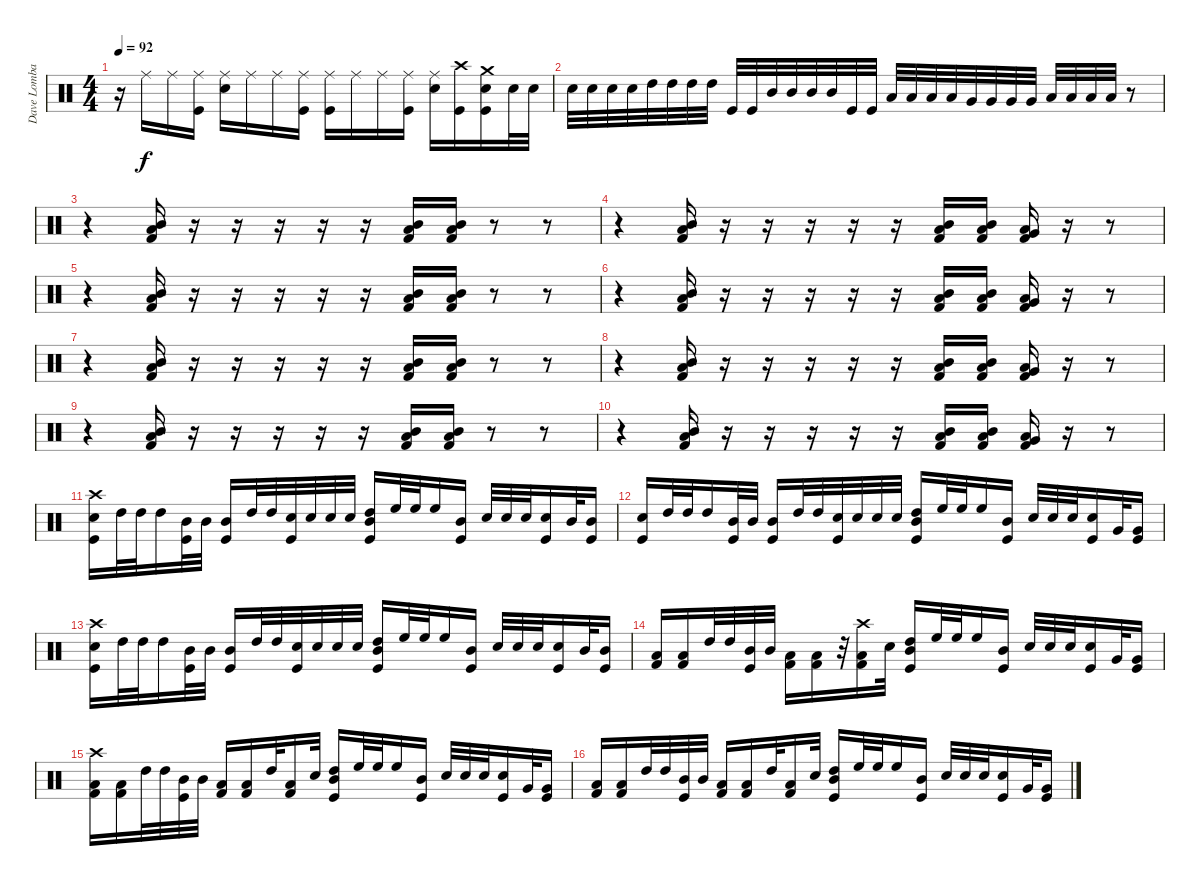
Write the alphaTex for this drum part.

\track ("Dave Lombardo" "Dave Lomba") {instrument percussion}
\staff {score}
\articulation defaults
\ts (4 4)
\tempo 92
\clef neutral
\ks c
r.16{dy f} "Ride (middle)".16 "Ride (middle)".16 ("Ride (middle)" "Kick (hit)").16 ("Ride (middle)" "Snare (hit) 2").16 "Ride (middle)".16 "Ride (middle)".16 ("Ride (middle)" "Kick (hit)").16 ("Ride (middle)" "Kick (hit)").16 "Ride (middle)".16 "Ride (middle)".16 ("Ride (middle)" "Kick (hit)").16 ("Ride (middle)" "Snare (hit) 2").16 ("Crash high (hit)" "Kick (hit)").16 ("Kick (hit)" "Snare (hit) 2" "Crash medium (hit)").16 "Snare (hit) 2".32 "Snare (hit) 2".32 |
"Snare (hit) 2".32 "Snare (hit) 2".32 "Snare (hit) 2".32 "Snare (hit) 2".32 "High Tom (hit)".32 "High Tom (hit)".32 "High Tom (hit)".32 "High Tom (hit)".32 "Kick (hit)".32 "Kick (hit)".32 "Mid Tom (hit)".32 "Mid Tom (hit)".32 "Mid Tom (hit)".32 "Mid Tom (hit)".32 "Kick (hit)".32 "Kick (hit)".32 "Low Tom (hit)".32 "Low Tom (hit)".32 "Low Tom (hit)".32 "Low Tom (hit)".32 "Very Low Tom (hit)".32 "Very Low Tom (hit)".32 "Very Low Tom (hit)".32 "Very Low Tom (hit)".32 "Low Floor Tom (hit)".32 "Low Floor Tom (hit)".32 "Low Floor Tom (hit)".32 "Low Floor Tom (hit)".32 r.8 |
r.4 ("Mid Tom (hit)" "Low Tom (hit)" "Kick (hit) 2").16 r.16 r.16 r.16 r.16 r.16 ("Mid Tom (hit)" "Low Tom (hit)" "Kick (hit) 2").16 ("Mid Tom (hit)" "Low Tom (hit)" "Kick (hit) 2").16 r.8 r.8 |
r.4 ("Mid Tom (hit)" "Low Tom (hit)" "Kick (hit) 2").16 r.16 r.16 r.16 r.16 r.16 ("Mid Tom (hit)" "Low Tom (hit)" "Kick (hit) 2").16 ("Mid Tom (hit)" "Low Tom (hit)" "Kick (hit) 2").16 ("Very Low Tom (hit)" "Low Tom (hit)" "Kick (hit) 2").16 r.16 r.8 |
r.4 ("Mid Tom (hit)" "Low Tom (hit)" "Kick (hit) 2").16 r.16 r.16 r.16 r.16 r.16 ("Mid Tom (hit)" "Low Tom (hit)" "Kick (hit) 2").16 ("Mid Tom (hit)" "Low Tom (hit)" "Kick (hit) 2").16 r.8 r.8 |
r.4 ("Mid Tom (hit)" "Low Tom (hit)" "Kick (hit) 2").16 r.16 r.16 r.16 r.16 r.16 ("Mid Tom (hit)" "Low Tom (hit)" "Kick (hit) 2").16 ("Mid Tom (hit)" "Low Tom (hit)" "Kick (hit) 2").16 ("Very Low Tom (hit)" "Low Tom (hit)" "Kick (hit) 2").16 r.16 r.8 |
r.4 ("Mid Tom (hit)" "Low Tom (hit)" "Kick (hit) 2").16 r.16 r.16 r.16 r.16 r.16 ("Mid Tom (hit)" "Low Tom (hit)" "Kick (hit) 2").16 ("Mid Tom (hit)" "Low Tom (hit)" "Kick (hit) 2").16 r.8 r.8 |
r.4 ("Mid Tom (hit)" "Low Tom (hit)" "Kick (hit) 2").16 r.16 r.16 r.16 r.16 r.16 ("Mid Tom (hit)" "Low Tom (hit)" "Kick (hit) 2").16 ("Mid Tom (hit)" "Low Tom (hit)" "Kick (hit) 2").16 ("Very Low Tom (hit)" "Low Tom (hit)" "Kick (hit) 2").16 r.16 r.8 |
r.4 ("Mid Tom (hit)" "Low Tom (hit)" "Kick (hit) 2").16 r.16 r.16 r.16 r.16 r.16 ("Mid Tom (hit)" "Low Tom (hit)" "Kick (hit) 2").16 ("Mid Tom (hit)" "Low Tom (hit)" "Kick (hit) 2").16 r.8 r.8 |
r.4 ("Mid Tom (hit)" "Low Tom (hit)" "Kick (hit) 2").16 r.16 r.16 r.16 r.16 r.16 ("Mid Tom (hit)" "Low Tom (hit)" "Kick (hit) 2").16 ("Mid Tom (hit)" "Low Tom (hit)" "Kick (hit) 2").16 ("Very Low Tom (hit)" "Low Tom (hit)" "Kick (hit) 2").16 r.16 r.8 |
("Crash high (hit)" "Kick (hit)" "Snare (hit) 2").16 "High Tom (hit)".32 "High Tom (hit)".32 "High Tom (hit)".16 ("Kick (hit)" "Mid Tom (hit)").32 "Mid Tom (hit)".32 ("Kick (hit)" "Mid Tom (hit)").16 "High Tom (hit)".32 "High Tom (hit)".32 ("Kick (hit)" "Snare (hit) 2").32 "Snare (hit) 2".32 "Snare (hit) 2".32 "Snare (hit) 2".32 ("Kick (hit)" "Mid Tom (hit)" "High Tom (hit)").16 "High Floor Tom (hit)".32 "High Floor Tom (hit)".32 "High Floor Tom (hit)".16 ("Kick (hit)" "Mid Tom (hit)").16 "Snare (hit) 2".32 "Snare (hit) 2".32 "Snare (hit) 2".32 ("Kick (hit)" "Snare (hit) 2").16 "Mid Tom (hit)".32 ("Kick (hit)" "Mid Tom (hit)").16 |
("Kick (hit)" "Snare (hit) 2").16 "High Tom (hit)".32 "High Tom (hit)".32 "High Tom (hit)".16 ("Kick (hit)" "Mid Tom (hit)").32 "Mid Tom (hit)".32 ("Kick (hit)" "Mid Tom (hit)").16 "High Tom (hit)".32 "High Tom (hit)".32 ("Kick (hit)" "Snare (hit) 2").32 "Snare (hit) 2".32 "Snare (hit) 2".32 "Snare (hit) 2".32 ("Kick (hit)" "Mid Tom (hit)" "High Tom (hit)").16 "High Floor Tom (hit)".32 "High Floor Tom (hit)".32 "High Floor Tom (hit)".16 ("Kick (hit)" "Mid Tom (hit)").16 "Snare (hit) 2".32 "Snare (hit) 2".32 "Snare (hit) 2".32 ("Kick (hit)" "Snare (hit) 2").16 "Very Low Tom (hit)".32 ("Kick (hit)" "Very Low Tom (hit)").16 |
("Crash high (hit)" "Kick (hit)" "Snare (hit) 2").16 "High Tom (hit)".32 "High Tom (hit)".32 "High Tom (hit)".16 ("Kick (hit)" "Mid Tom (hit)").32 "Mid Tom (hit)".32 ("Kick (hit)" "Mid Tom (hit)").16 "High Tom (hit)".32 "High Tom (hit)".32 ("Kick (hit)" "Snare (hit) 2").32 "Snare (hit) 2".32 "Snare (hit) 2".32 "Snare (hit) 2".32 ("Kick (hit)" "Mid Tom (hit)" "High Tom (hit)").16 "High Floor Tom (hit)".32 "High Floor Tom (hit)".32 "High Floor Tom (hit)".16 ("Kick (hit)" "Mid Tom (hit)").16 "Snare (hit) 2".32 "Snare (hit) 2".32 "Snare (hit) 2".32 ("Kick (hit)" "Snare (hit) 2").16 "Mid Tom (hit)".32 ("Kick (hit)" "Mid Tom (hit)").16 |
("Low Tom (hit)" "Kick (hit) 2").16 ("Low Tom (hit)" "Kick (hit) 2").16 "High Tom (hit)".32 "High Tom (hit)".32 ("Kick (hit)" "Mid Tom (hit)").32 "Mid Tom (hit)".32 ("Low Tom (hit)" "Kick (hit) 2").16 ("Low Tom (hit)" "Kick (hit) 2").16 r.32 ("Crash high (hit)" "Low Tom (hit)" "Kick (hit) 2").16 "Snare (hit) 2".32 ("Kick (hit)" "Mid Tom (hit)" "High Tom (hit)").16 "High Floor Tom (hit)".32 "High Floor Tom (hit)".32 "High Floor Tom (hit)".16 ("Kick (hit)" "Mid Tom (hit)").16 "Snare (hit) 2".32 "Snare (hit) 2".32 "Snare (hit) 2".32 ("Kick (hit)" "Snare (hit) 2").16 "Very Low Tom (hit)".32 ("Kick (hit)" "Very Low Tom (hit)").16 |
("Low Tom (hit)" "Kick (hit) 2" "Crash high (hit)").16 ("Low Tom (hit)" "Kick (hit) 2").16 "High Tom (hit)".32 "High Tom (hit)".32 ("Kick (hit)" "Mid Tom (hit)").32 "Mid Tom (hit)".32 ("Low Tom (hit)" "Kick (hit) 2").16 ("Low Tom (hit)" "Kick (hit) 2").16 "High Tom (hit)".32 ("Low Tom (hit)" "Kick (hit) 2").16 "Snare (hit) 2".32 ("Kick (hit)" "Mid Tom (hit)" "High Tom (hit)").16 "High Floor Tom (hit)".32 "High Floor Tom (hit)".32 "High Floor Tom (hit)".16 ("Kick (hit)" "Mid Tom (hit)").16 "Snare (hit) 2".32 "Snare (hit) 2".32 "Snare (hit) 2".32 ("Kick (hit)" "Snare (hit) 2").16 "Very Low Tom (hit)".32 ("Kick (hit)" "Very Low Tom (hit)").16 |
("Low Tom (hit)" "Kick (hit) 2").16 ("Low Tom (hit)" "Kick (hit) 2").16 "High Tom (hit)".32 "High Tom (hit)".32 ("Kick (hit)" "Mid Tom (hit)").32 "Mid Tom (hit)".32 ("Low Tom (hit)" "Kick (hit) 2").16 ("Low Tom (hit)" "Kick (hit) 2").16 "High Tom (hit)".32 ("Low Tom (hit)" "Kick (hit) 2").16 "Snare (hit) 2".32 ("Kick (hit)" "Mid Tom (hit)" "High Tom (hit)").16 "High Floor Tom (hit)".32 "High Floor Tom (hit)".32 "High Floor Tom (hit)".16 ("Kick (hit)" "Mid Tom (hit)").16 "Snare (hit) 2".32 "Snare (hit) 2".32 "Snare (hit) 2".32 ("Kick (hit)" "Snare (hit) 2").16 "Very Low Tom (hit)".32 ("Kick (hit)" "Very Low Tom (hit)").16
